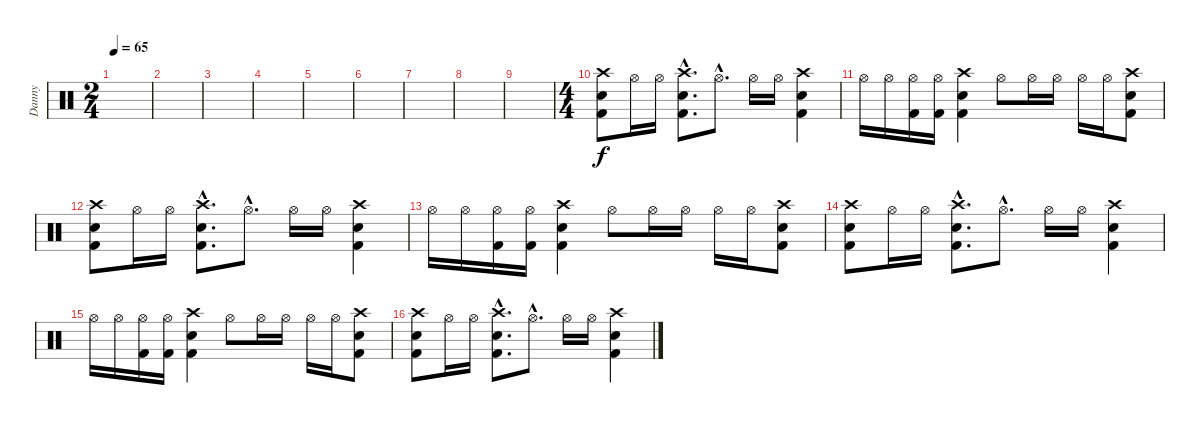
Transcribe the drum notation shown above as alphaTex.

\track ("Danny" "Danny") {instrument percussion}
\staff {score}
\articulation defaults
\ts (2 4)
\tempo 65
\clef neutral
\ks c
|
|
|
|
|
|
|
|
|
\ts (4 4)
("Crash high (hit)" "Snare (hit) 2" "Kick (hit) 2").8 "Hi-Hat (open)".16 "Hi-Hat (open)".16 ("Crash high (hit)"{hac} "Snare (hit) 2"{hac} "Kick (hit) 2"{hac}).8{d} "Hi-Hat (open)"{hac}.8{d} "Hi-Hat (open)".16 "Hi-Hat (open)".16 ("Crash high (hit)" "Snare (hit) 2" "Kick (hit) 2").4 |
"Hi-Hat (open)".16 "Hi-Hat (open)".16 ("Hi-Hat (open)" "Kick (hit) 2").16 ("Hi-Hat (open)" "Kick (hit) 2").16 ("Crash high (hit)" "Snare (hit) 2" "Kick (hit) 2").4 "Hi-Hat (open)".8 "Hi-Hat (open)".16 "Hi-Hat (open)".16 "Hi-Hat (open)".16 "Hi-Hat (open)".16 ("Crash high (hit)" "Snare (hit) 2" "Kick (hit) 2").8 |
("Crash high (hit)" "Snare (hit) 2" "Kick (hit) 2").8 "Hi-Hat (open)".16 "Hi-Hat (open)".16 ("Crash high (hit)"{hac} "Snare (hit) 2"{hac} "Kick (hit) 2"{hac}).8{d} "Hi-Hat (open)"{hac}.8{d} "Hi-Hat (open)".16 "Hi-Hat (open)".16 ("Crash high (hit)" "Snare (hit) 2" "Kick (hit) 2").4 |
"Hi-Hat (open)".16 "Hi-Hat (open)".16 ("Hi-Hat (open)" "Kick (hit) 2").16 ("Hi-Hat (open)" "Kick (hit) 2").16 ("Crash high (hit)" "Snare (hit) 2" "Kick (hit) 2").4 "Hi-Hat (open)".8 "Hi-Hat (open)".16 "Hi-Hat (open)".16 "Hi-Hat (open)".16 "Hi-Hat (open)".16 ("Crash high (hit)" "Snare (hit) 2" "Kick (hit) 2").8 |
("Crash high (hit)" "Snare (hit) 2" "Kick (hit) 2").8 "Hi-Hat (open)".16 "Hi-Hat (open)".16 ("Crash high (hit)"{hac} "Snare (hit) 2"{hac} "Kick (hit) 2"{hac}).8{d} "Hi-Hat (open)"{hac}.8{d} "Hi-Hat (open)".16 "Hi-Hat (open)".16 ("Crash high (hit)" "Snare (hit) 2" "Kick (hit) 2").4 |
"Hi-Hat (open)".16 "Hi-Hat (open)".16 ("Hi-Hat (open)" "Kick (hit) 2").16 ("Hi-Hat (open)" "Kick (hit) 2").16 ("Crash high (hit)" "Snare (hit) 2" "Kick (hit) 2").4 "Hi-Hat (open)".8 "Hi-Hat (open)".16 "Hi-Hat (open)".16 "Hi-Hat (open)".16 "Hi-Hat (open)".16 ("Crash high (hit)" "Snare (hit) 2" "Kick (hit) 2").8 |
("Crash high (hit)" "Snare (hit) 2" "Kick (hit) 2").8 "Hi-Hat (open)".16 "Hi-Hat (open)".16 ("Crash high (hit)"{hac} "Snare (hit) 2"{hac} "Kick (hit) 2"{hac}).8{d} "Hi-Hat (open)"{hac}.8{d} "Hi-Hat (open)".16 "Hi-Hat (open)".16 ("Crash high (hit)" "Snare (hit) 2" "Kick (hit) 2").4
